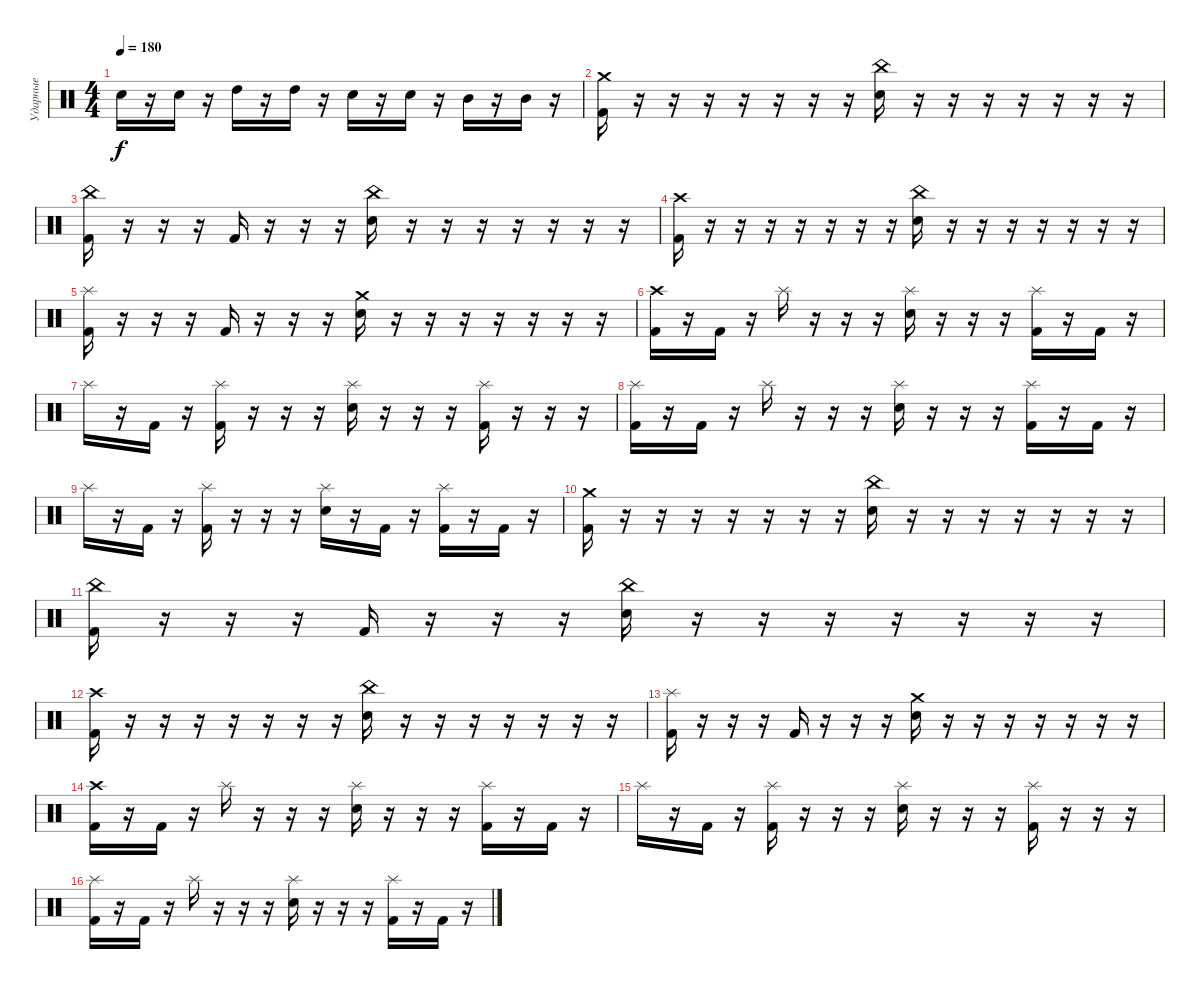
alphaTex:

\track ("Ударные" "Ударные") {instrument percussion}
\staff {score}
\articulation defaults
\ts (4 4)
\tempo 180
\clef neutral
\ks c "Electric Snare (hit)".16{dy f}
r.16 "Electric Snare (hit)".16 r.16 "High Tom (hit)".16 r.16 "High Tom (hit)".16 r.16 "Electric Snare (hit)".16 r.16 "Electric Snare (hit)".16 r.16 "Mid Tom (hit)".16 r.16 "Mid Tom (hit)".16 r.16 |
("Kick (hit) 2" "Crash medium (hit)").16 r.16 r.16 r.16 r.16 r.16 r.16 r.16 ("Electric Snare (hit)" "China (hit)").16 r.16 r.16 r.16 r.16 r.16 r.16 r.16 |
("Kick (hit) 2" "China (hit)").16 r.16 r.16 r.16 "Kick (hit) 2".16 r.16 r.16 r.16 ("Electric Snare (hit)" "China (hit)").16 r.16 r.16 r.16 r.16 r.16 r.16 r.16 |
("Kick (hit) 2" "Crash high (hit)").16 r.16 r.16 r.16 r.16 r.16 r.16 r.16 ("Electric Snare (hit)" "China (hit)").16 r.16 r.16 r.16 r.16 r.16 r.16 r.16 |
("Kick (hit) 2" "Splash (hit)").16 r.16 r.16 r.16 "Kick (hit) 2".16 r.16 r.16 r.16 ("Electric Snare (hit)" "Crash medium (hit)").16 r.16 r.16 r.16 r.16 r.16 r.16 r.16 |
("Kick (hit) 2" "Crash high (hit)").16 r.16 "Kick (hit) 2".16 r.16 "Splash (hit)".16 r.16 r.16 r.16 ("Electric Snare (hit)" "Splash (hit)").16 r.16 r.16 r.16 ("Kick (hit) 2" "Splash (hit)").16 r.16 "Kick (hit) 2".16 r.16 |
"Splash (hit)".16 r.16 "Kick (hit) 2".16 r.16 ("Kick (hit) 2" "Splash (hit)").16 r.16 r.16 r.16 ("Electric Snare (hit)" "Splash (hit)").16 r.16 r.16 r.16 ("Kick (hit) 2" "Splash (hit)").16 r.16 r.16 r.16 |
("Kick (hit) 2" "Splash (hit)").16 r.16 "Kick (hit) 2".16 r.16 "Splash (hit)".16 r.16 r.16 r.16 ("Electric Snare (hit)" "Splash (hit)").16 r.16 r.16 r.16 ("Kick (hit) 2" "Splash (hit)").16 r.16 "Kick (hit) 2".16 r.16 |
"Splash (hit)".16 r.16 "Kick (hit) 2".16 r.16 ("Kick (hit) 2" "Splash (hit)").16 r.16 r.16 r.16 ("Electric Snare (hit)" "Splash (hit)").16 r.16 "Kick (hit) 2".16 r.16 ("Kick (hit) 2" "Splash (hit)").16 r.16 "Kick (hit) 2".16 r.16 |
("Kick (hit) 2" "Crash medium (hit)").16 r.16 r.16 r.16 r.16 r.16 r.16 r.16 ("Electric Snare (hit)" "China (hit)").16 r.16 r.16 r.16 r.16 r.16 r.16 r.16 |
("Kick (hit) 2" "China (hit)").16 r.16 r.16 r.16 "Kick (hit) 2".16 r.16 r.16 r.16 ("Electric Snare (hit)" "China (hit)").16 r.16 r.16 r.16 r.16 r.16 r.16 r.16 |
("Kick (hit) 2" "Crash high (hit)").16 r.16 r.16 r.16 r.16 r.16 r.16 r.16 ("Electric Snare (hit)" "China (hit)").16 r.16 r.16 r.16 r.16 r.16 r.16 r.16 |
("Kick (hit) 2" "Splash (hit)").16 r.16 r.16 r.16 "Kick (hit) 2".16 r.16 r.16 r.16 ("Electric Snare (hit)" "Crash medium (hit)").16 r.16 r.16 r.16 r.16 r.16 r.16 r.16 |
("Kick (hit) 2" "Crash high (hit)").16 r.16 "Kick (hit) 2".16 r.16 "Splash (hit)".16 r.16 r.16 r.16 ("Electric Snare (hit)" "Splash (hit)").16 r.16 r.16 r.16 ("Kick (hit) 2" "Splash (hit)").16 r.16 "Kick (hit) 2".16 r.16 |
"Splash (hit)".16 r.16 "Kick (hit) 2".16 r.16 ("Kick (hit) 2" "Splash (hit)").16 r.16 r.16 r.16 ("Electric Snare (hit)" "Splash (hit)").16 r.16 r.16 r.16 ("Kick (hit) 2" "Splash (hit)").16 r.16 r.16 r.16 |
("Kick (hit) 2" "Splash (hit)").16 r.16 "Kick (hit) 2".16 r.16 "Splash (hit)".16 r.16 r.16 r.16 ("Electric Snare (hit)" "Splash (hit)").16 r.16 r.16 r.16 ("Kick (hit) 2" "Splash (hit)").16 r.16 "Kick (hit) 2".16 r.16
